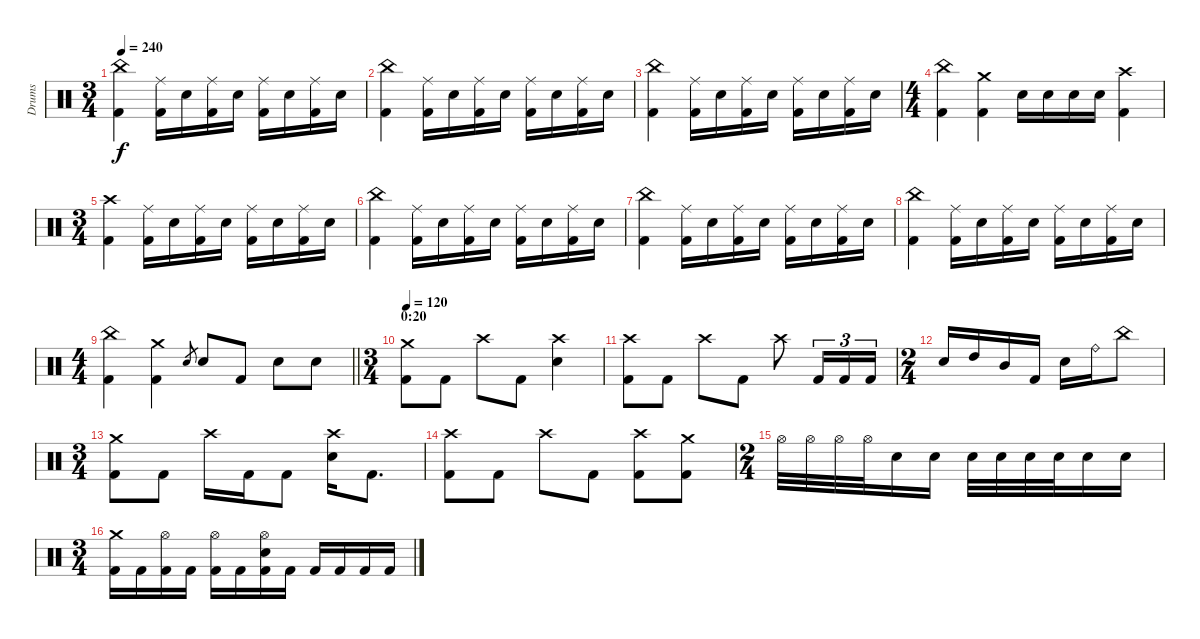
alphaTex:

\track ("Drums" "Drums") {instrument percussion}
\staff {score}
\articulation defaults
\ts (3 4)
\tempo 240
\clef neutral
\ks c
("China (hit)" "Kick (hit) 2").4{dy f} ("Ride (middle)" "Kick (hit) 2").16 "Electric Snare (hit)".16 ("Ride (middle)" "Kick (hit) 2").16 "Electric Snare (hit)".16 ("Ride (middle)" "Kick (hit) 2").16 "Electric Snare (hit)".16 ("Ride (middle)" "Kick (hit) 2").16 "Electric Snare (hit)".16 |
("China (hit)" "Kick (hit) 2").4 ("Ride (middle)" "Kick (hit) 2").16 "Electric Snare (hit)".16 ("Ride (middle)" "Kick (hit) 2").16 "Electric Snare (hit)".16 ("Ride (middle)" "Kick (hit) 2").16 "Electric Snare (hit)".16 ("Ride (middle)" "Kick (hit) 2").16 "Electric Snare (hit)".16 |
("China (hit)" "Kick (hit) 2").4 ("Ride (middle)" "Kick (hit) 2").16 "Electric Snare (hit)".16 ("Ride (middle)" "Kick (hit) 2").16 "Electric Snare (hit)".16 ("Ride (middle)" "Kick (hit) 2").16 "Electric Snare (hit)".16 ("Ride (middle)" "Kick (hit) 2").16 "Electric Snare (hit)".16 |
\ts (4 4)
("China (hit)" "Kick (hit) 2").4 ("Crash medium (hit)" "Kick (hit) 2").4 "Electric Snare (hit)".16 "Electric Snare (hit)".16 "Electric Snare (hit)".16 "Electric Snare (hit)".16 ("Crash high (hit)" "Kick (hit) 2").4 |
\ts (3 4)
("Crash high (hit)" "Kick (hit) 2").4 ("Ride (middle)" "Kick (hit) 2").16 "Electric Snare (hit)".16 ("Ride (middle)" "Kick (hit) 2").16 "Electric Snare (hit)".16 ("Ride (middle)" "Kick (hit) 2").16 "Electric Snare (hit)".16 ("Ride (middle)" "Kick (hit) 2").16 "Electric Snare (hit)".16 |
("China (hit)" "Kick (hit) 2").4 ("Ride (middle)" "Kick (hit) 2").16 "Electric Snare (hit)".16 ("Ride (middle)" "Kick (hit) 2").16 "Electric Snare (hit)".16 ("Ride (middle)" "Kick (hit) 2").16 "Electric Snare (hit)".16 ("Ride (middle)" "Kick (hit) 2").16 "Electric Snare (hit)".16 |
("China (hit)" "Kick (hit) 2").4 ("Ride (middle)" "Kick (hit) 2").16 "Electric Snare (hit)".16 ("Ride (middle)" "Kick (hit) 2").16 "Electric Snare (hit)".16 ("Ride (middle)" "Kick (hit) 2").16 "Electric Snare (hit)".16 ("Ride (middle)" "Kick (hit) 2").16 "Electric Snare (hit)".16 |
("China (hit)" "Kick (hit) 2").4 ("Ride (middle)" "Kick (hit) 2").16 "Electric Snare (hit)".16 ("Ride (middle)" "Kick (hit) 2").16 "Electric Snare (hit)".16 ("Ride (middle)" "Kick (hit) 2").16 "Electric Snare (hit)".16 ("Ride (middle)" "Kick (hit) 2").16 "Electric Snare (hit)".16 |
\ts (4 4)
\barLineRight lightlight
("China (hit)" "Kick (hit) 2").4 ("Crash medium (hit)" "Kick (hit) 2").4 "Electric Snare (hit)".8{gr} "Electric Snare (hit)".8 "Kick (hit) 2".8 "Electric Snare (hit)".8 "Electric Snare (hit)".8 |
\ts (3 4)
\section ("" "0:20")
\tempo 120
("Crash medium (hit)" "Kick (hit) 2").8 "Kick (hit) 2".8 "Crash high (hit)".8 "Kick (hit) 2".8 ("Crash high (hit)" "Electric Snare (hit)").4 |
("Crash high (hit)" "Kick (hit) 2").8 "Kick (hit) 2".8 "Crash high (hit)".8 "Kick (hit) 2".8 "Crash high (hit)".8 "Kick (hit) 2".16{tu (3 2)} "Kick (hit) 2".16{tu (3 2)} "Kick (hit) 2".16{tu (3 2)} |
\ts (2 4)
"Electric Snare (hit)".16 "High Tom (hit)".16 "Mid Tom (hit)".16 "Kick (hit) 2".16 "Electric Snare (hit)".16 "Ride (bell)".16 "China (hit)".8 |
\ts (3 4)
("Crash medium (hit)" "Kick (hit) 2").8 "Kick (hit) 2".8 "Crash high (hit)".16 "Kick (hit) 2".16 "Kick (hit) 2".8 ("Crash high (hit)" "Electric Snare (hit)").16 "Kick (hit) 2".8{d} |
("Crash high (hit)" "Kick (hit) 2").8 "Kick (hit) 2".8 "Crash high (hit)".8 "Kick (hit) 2".8 ("Kick (hit) 2" "Crash high (hit)").8 ("Kick (hit) 2" "Crash medium (hit)").8 |
\ts (2 4)
"Hi-Hat (open)".32 "Hi-Hat (open)".32 "Hi-Hat (open)".32 "Hi-Hat (open)".32 "Electric Snare (hit)".16 "Electric Snare (hit)".16 "Electric Snare (hit)".32 "Electric Snare (hit)".32 "Electric Snare (hit)".32 "Electric Snare (hit)".32 "Electric Snare (hit)".16 "Electric Snare (hit)".16 |
\ts (3 4)
("Kick (hit) 2" "Crash medium (hit)").16 "Kick (hit) 2".16 ("Kick (hit) 2" "Hi-Hat (open)").16 "Kick (hit) 2".16 ("Kick (hit) 2" "Hi-Hat (open)").16 "Kick (hit) 2".16 ("Kick (hit) 2" "Hi-Hat (open)" "Electric Snare (hit)").16 "Kick (hit) 2".16 "Kick (hit) 2".16 "Kick (hit) 2".16 "Kick (hit) 2".16 "Kick (hit) 2".16
